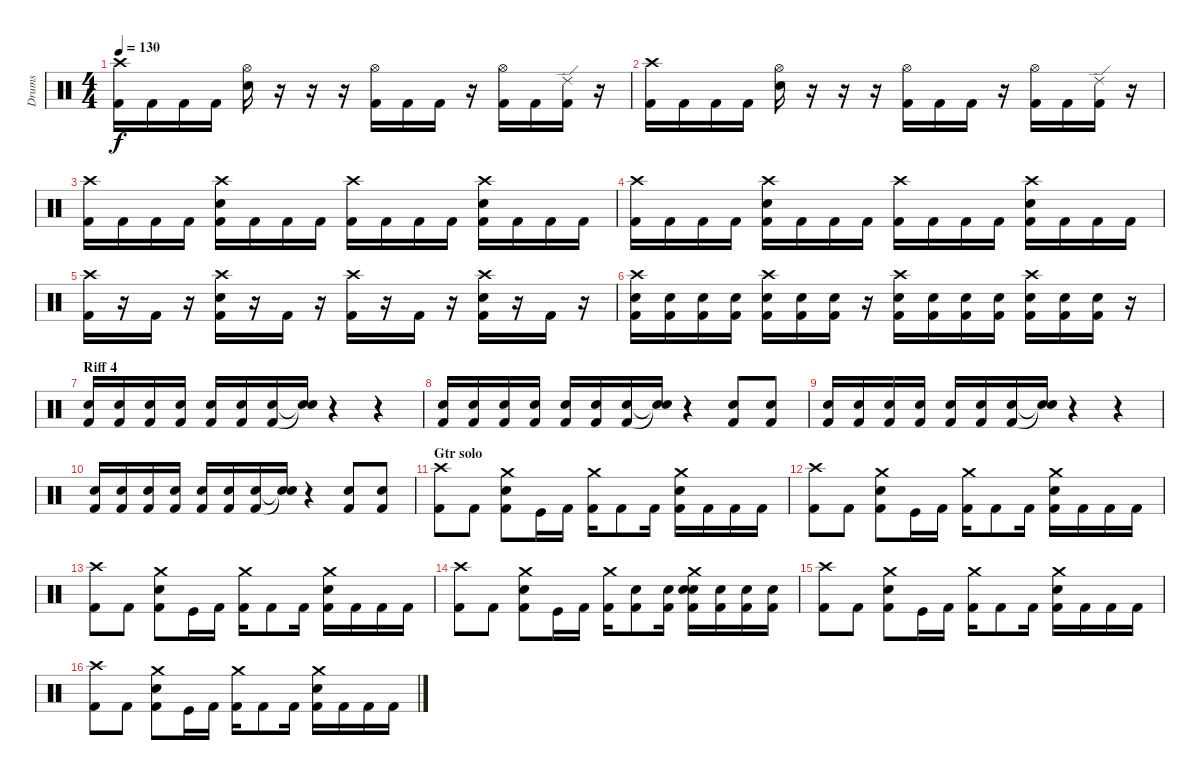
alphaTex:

\track ("Drums" "Drums") {instrument percussion}
\staff {score}
\articulation defaults
\ts (4 4)
\tempo 130
\clef neutral
\ks c
("Crash high (hit)" "Kick (hit) 2").16{dy f} "Kick (hit) 2".16 "Kick (hit) 2".16 "Kick (hit) 2".16 ("Hi-Hat (open)" "Electric Snare (hit)").16 r.16 r.16 r.16 ("Hi-Hat (open)" "Kick (hit) 2").16 "Kick (hit) 2".16 "Kick (hit) 2".16 r.16 ("Hi-Hat (open)" "Kick (hit) 2").16 "Kick (hit) 2".16 ("Ride (edge) 2" "Kick (hit) 2").16 r.16 |
("Crash high (hit)" "Kick (hit) 2").16 "Kick (hit) 2".16 "Kick (hit) 2".16 "Kick (hit) 2".16 ("Hi-Hat (open)" "Electric Snare (hit)").16 r.16 r.16 r.16 ("Hi-Hat (open)" "Kick (hit) 2").16 "Kick (hit) 2".16 "Kick (hit) 2".16 r.16 ("Hi-Hat (open)" "Kick (hit) 2").16 "Kick (hit) 2".16 ("Ride (edge) 2" "Kick (hit) 2").16 r.16 |
("Crash high (hit)" "Kick (hit) 2").16 "Kick (hit) 2".16 "Kick (hit) 2".16 "Kick (hit) 2".16 ("Crash high (hit)" "Electric Snare (hit)" "Kick (hit) 2").16 "Kick (hit) 2".16 "Kick (hit) 2".16 "Kick (hit) 2".16 ("Crash high (hit)" "Kick (hit) 2").16 "Kick (hit) 2".16 "Kick (hit) 2".16 "Kick (hit) 2".16 ("Crash high (hit)" "Electric Snare (hit)" "Kick (hit) 2").16 "Kick (hit) 2".16 "Kick (hit) 2".16 "Kick (hit) 2".16 |
("Crash high (hit)" "Kick (hit) 2").16 "Kick (hit) 2".16 "Kick (hit) 2".16 "Kick (hit) 2".16 ("Crash high (hit)" "Electric Snare (hit)" "Kick (hit) 2").16 "Kick (hit) 2".16 "Kick (hit) 2".16 "Kick (hit) 2".16 ("Crash high (hit)" "Kick (hit) 2").16 "Kick (hit) 2".16 "Kick (hit) 2".16 "Kick (hit) 2".16 ("Crash high (hit)" "Electric Snare (hit)" "Kick (hit) 2").16 "Kick (hit) 2".16 "Kick (hit) 2".16 "Kick (hit) 2".16 |
("Crash high (hit)" "Kick (hit) 2").16 r.16 "Kick (hit) 2".16 r.16 ("Crash high (hit)" "Electric Snare (hit)" "Kick (hit) 2").16 r.16 "Kick (hit) 2".16 r.16 ("Crash high (hit)" "Kick (hit) 2").16 r.16 "Kick (hit) 2".16 r.16 ("Crash high (hit)" "Electric Snare (hit)" "Kick (hit) 2").16 r.16 "Kick (hit) 2".16 r.16 |
("Crash high (hit)" "Electric Snare (hit)" "Kick (hit) 2").16 ("Electric Snare (hit)" "Kick (hit) 2").16 ("Electric Snare (hit)" "Kick (hit) 2").16 ("Electric Snare (hit)" "Kick (hit) 2").16 ("Crash high (hit)" "Electric Snare (hit)" "Kick (hit) 2").16 ("Electric Snare (hit)" "Kick (hit) 2").16 ("Electric Snare (hit)" "Kick (hit) 2").16 r.16 ("Crash high (hit)" "Electric Snare (hit)" "Kick (hit) 2").16 ("Electric Snare (hit)" "Kick (hit) 2").16 ("Electric Snare (hit)" "Kick (hit) 2").16 ("Electric Snare (hit)" "Kick (hit) 2").16 ("Crash high (hit)" "Electric Snare (hit)" "Kick (hit) 2").16 ("Electric Snare (hit)" "Kick (hit) 2").16 ("Electric Snare (hit)" "Kick (hit) 2").16 r.16 |
\section ("" "Riff 4")
("Electric Snare (hit)" "Kick (hit) 2").16 ("Electric Snare (hit)" "Kick (hit) 2").16 ("Electric Snare (hit)" "Kick (hit) 2").16 ("Electric Snare (hit)" "Kick (hit) 2").16 ("Electric Snare (hit)" "Kick (hit) 2").16 ("Electric Snare (hit)" "Kick (hit) 2").16 ("Electric Snare (hit)" "Kick (hit) 2").16 ("Snare (hit)"{t} "Snare (hit)"{t}).16 r.4 r.4 |
("Electric Snare (hit)" "Kick (hit) 2").16 ("Electric Snare (hit)" "Kick (hit) 2").16 ("Electric Snare (hit)" "Kick (hit) 2").16 ("Electric Snare (hit)" "Kick (hit) 2").16 ("Electric Snare (hit)" "Kick (hit) 2").16 ("Electric Snare (hit)" "Kick (hit) 2").16 ("Electric Snare (hit)" "Kick (hit) 2").16 ("Snare (hit)"{t} "Snare (hit)"{t}).16 r.4 ("Electric Snare (hit)" "Kick (hit) 2").8 ("Electric Snare (hit)" "Kick (hit) 2").8 |
("Electric Snare (hit)" "Kick (hit) 2").16 ("Electric Snare (hit)" "Kick (hit) 2").16 ("Electric Snare (hit)" "Kick (hit) 2").16 ("Electric Snare (hit)" "Kick (hit) 2").16 ("Electric Snare (hit)" "Kick (hit) 2").16 ("Electric Snare (hit)" "Kick (hit) 2").16 ("Electric Snare (hit)" "Kick (hit) 2").16 ("Snare (hit)"{t} "Snare (hit)"{t}).16 r.4 r.4 |
("Electric Snare (hit)" "Kick (hit) 2").16 ("Electric Snare (hit)" "Kick (hit) 2").16 ("Electric Snare (hit)" "Kick (hit) 2").16 ("Electric Snare (hit)" "Kick (hit) 2").16 ("Electric Snare (hit)" "Kick (hit) 2").16 ("Electric Snare (hit)" "Kick (hit) 2").16 ("Electric Snare (hit)" "Kick (hit) 2").16 ("Snare (hit)"{t} "Snare (hit)"{t}).16 r.4 ("Electric Snare (hit)" "Kick (hit) 2").8 ("Electric Snare (hit)" "Kick (hit) 2").8 |
\section ("" "Gtr solo")
("Crash high (hit)" "Kick (hit) 2").8 "Kick (hit) 2".8 ("Crash medium (hit)" "Electric Snare (hit)" "Kick (hit) 2").8 "Kick (hit)".16 "Kick (hit) 2".16 ("Crash medium (hit)" "Kick (hit) 2").16 "Kick (hit) 2".8 "Kick (hit) 2".16 ("Crash medium (hit)" "Electric Snare (hit)" "Kick (hit) 2").16 "Kick (hit) 2".16 "Kick (hit) 2".16 "Kick (hit) 2".16 |
("Crash high (hit)" "Kick (hit) 2").8 "Kick (hit) 2".8 ("Crash medium (hit)" "Electric Snare (hit)" "Kick (hit) 2").8 "Kick (hit)".16 "Kick (hit) 2".16 ("Crash medium (hit)" "Kick (hit) 2").16 "Kick (hit) 2".8 "Kick (hit) 2".16 ("Crash medium (hit)" "Electric Snare (hit)" "Kick (hit) 2").16 "Kick (hit) 2".16 "Kick (hit) 2".16 "Kick (hit) 2".16 |
("Crash high (hit)" "Kick (hit) 2").8 "Kick (hit) 2".8 ("Crash medium (hit)" "Electric Snare (hit)" "Kick (hit) 2").8 "Kick (hit)".16 "Kick (hit) 2".16 ("Crash medium (hit)" "Kick (hit) 2").16 "Kick (hit) 2".8 "Kick (hit) 2".16 ("Crash medium (hit)" "Electric Snare (hit)" "Kick (hit) 2").16 "Kick (hit) 2".16 "Kick (hit) 2".16 "Kick (hit) 2".16 |
("Crash high (hit)" "Kick (hit) 2").8 "Kick (hit) 2".8 ("Crash medium (hit)" "Electric Snare (hit)" "Kick (hit) 2").8 "Kick (hit)".16 "Kick (hit) 2".16 ("Crash medium (hit)" "Kick (hit) 2").16 ("Electric Snare (hit)" "Kick (hit) 2").8 ("Electric Snare (hit)" "Kick (hit) 2").16 ("Crash medium (hit)" "Electric Snare (hit)" "Electric Snare (hit)" "Kick (hit) 2").16 ("Electric Snare (hit)" "Kick (hit) 2").16 ("Electric Snare (hit)" "Kick (hit) 2").16 ("Electric Snare (hit)" "Kick (hit) 2").16 |
("Crash high (hit)" "Kick (hit) 2").8 "Kick (hit) 2".8 ("Crash medium (hit)" "Electric Snare (hit)" "Kick (hit) 2").8 "Kick (hit)".16 "Kick (hit) 2".16 ("Crash medium (hit)" "Kick (hit) 2").16 "Kick (hit) 2".8 "Kick (hit) 2".16 ("Crash medium (hit)" "Electric Snare (hit)" "Kick (hit) 2").16 "Kick (hit) 2".16 "Kick (hit) 2".16 "Kick (hit) 2".16 |
("Crash high (hit)" "Kick (hit) 2").8 "Kick (hit) 2".8 ("Crash medium (hit)" "Electric Snare (hit)" "Kick (hit) 2").8 "Kick (hit)".16 "Kick (hit) 2".16 ("Crash medium (hit)" "Kick (hit) 2").16 "Kick (hit) 2".8 "Kick (hit) 2".16 ("Crash medium (hit)" "Electric Snare (hit)" "Kick (hit) 2").16 "Kick (hit) 2".16 "Kick (hit) 2".16 "Kick (hit) 2".16
